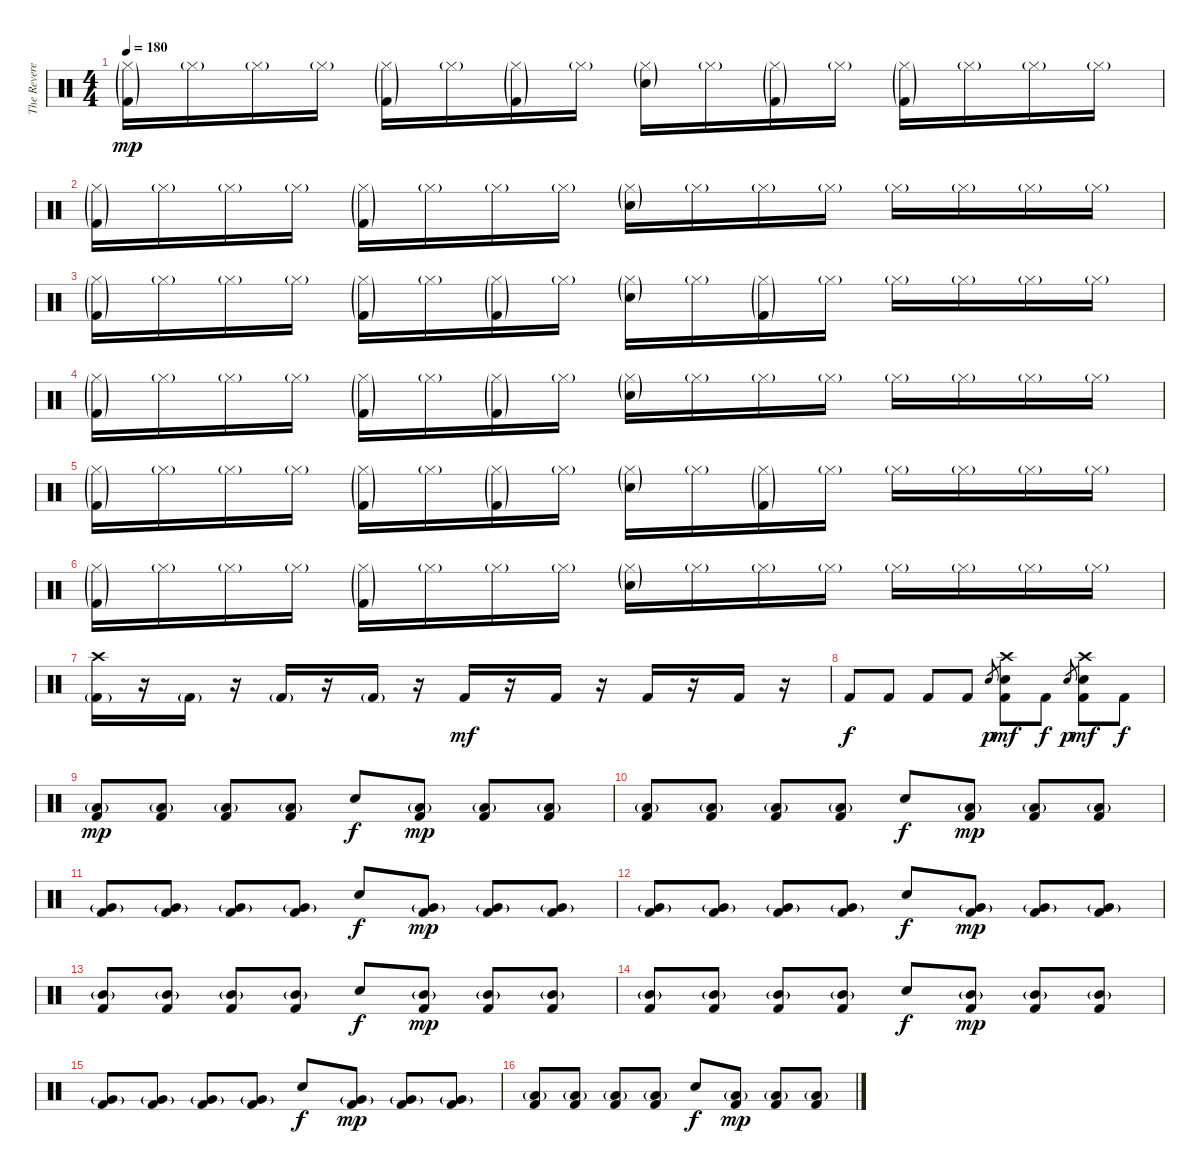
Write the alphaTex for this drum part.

\track ("The Reverend" "The Revere") {instrument percussion}
\staff {score}
\articulation defaults
\ts (4 4)
\tempo 180
\clef neutral
\ks c
("Hi-Hat (closed)"{g} "Kick (hit) 2"{g}).16{dy mp} "Hi-Hat (closed)"{g}.16 "Hi-Hat (closed)"{g}.16 "Hi-Hat (closed)"{g}.16 ("Hi-Hat (closed)"{g} "Kick (hit) 2"{g}).16 "Hi-Hat (closed)"{g}.16 ("Hi-Hat (closed)"{g} "Kick (hit) 2"{g}).16 "Hi-Hat (closed)"{g}.16 ("Hi-Hat (closed)"{g} "Snare (hit) 2"{g}).16 "Hi-Hat (closed)"{g}.16 ("Hi-Hat (closed)"{g} "Kick (hit) 2"{g}).16 "Hi-Hat (closed)"{g}.16 ("Hi-Hat (closed)"{g} "Kick (hit) 2"{g}).16 "Hi-Hat (closed)"{g}.16 "Hi-Hat (closed)"{g}.16 "Hi-Hat (closed)"{g}.16 |
("Hi-Hat (closed)"{g} "Kick (hit) 2"{g}).16 "Hi-Hat (closed)"{g}.16 "Hi-Hat (closed)"{g}.16 "Hi-Hat (closed)"{g}.16 ("Hi-Hat (closed)"{g} "Kick (hit) 2"{g}).16 "Hi-Hat (closed)"{g}.16 "Hi-Hat (closed)"{g}.16 "Hi-Hat (closed)"{g}.16 ("Hi-Hat (closed)"{g} "Snare (hit) 2"{g}).16 "Hi-Hat (closed)"{g}.16 "Hi-Hat (closed)"{g}.16 "Hi-Hat (closed)"{g}.16 "Hi-Hat (closed)"{g}.16 "Hi-Hat (closed)"{g}.16 "Hi-Hat (closed)"{g}.16 "Hi-Hat (closed)"{g}.16 |
("Hi-Hat (closed)"{g} "Kick (hit) 2"{g}).16 "Hi-Hat (closed)"{g}.16 "Hi-Hat (closed)"{g}.16 "Hi-Hat (closed)"{g}.16 ("Hi-Hat (closed)"{g} "Kick (hit) 2"{g}).16 "Hi-Hat (closed)"{g}.16 ("Hi-Hat (closed)"{g} "Kick (hit) 2"{g}).16 "Hi-Hat (closed)"{g}.16 ("Hi-Hat (closed)"{g} "Snare (hit) 2"{g}).16 "Hi-Hat (closed)"{g}.16 ("Hi-Hat (closed)"{g} "Kick (hit) 2"{g}).16 "Hi-Hat (closed)"{g}.16 "Hi-Hat (closed)"{g}.16 "Hi-Hat (closed)"{g}.16 "Hi-Hat (closed)"{g}.16 "Hi-Hat (closed)"{g}.16 |
("Hi-Hat (closed)"{g} "Kick (hit) 2"{g}).16 "Hi-Hat (closed)"{g}.16 "Hi-Hat (closed)"{g}.16 "Hi-Hat (closed)"{g}.16 ("Hi-Hat (closed)"{g} "Kick (hit) 2"{g}).16 "Hi-Hat (closed)"{g}.16 ("Hi-Hat (closed)"{g} "Kick (hit) 2"{g}).16 "Hi-Hat (closed)"{g}.16 ("Hi-Hat (closed)"{g} "Snare (hit) 2"{g}).16 "Hi-Hat (closed)"{g}.16 "Hi-Hat (closed)"{g}.16 "Hi-Hat (closed)"{g}.16 "Hi-Hat (closed)"{g}.16 "Hi-Hat (closed)"{g}.16 "Hi-Hat (closed)"{g}.16 "Hi-Hat (closed)"{g}.16 |
("Hi-Hat (closed)"{g} "Kick (hit) 2"{g}).16 "Hi-Hat (closed)"{g}.16 "Hi-Hat (closed)"{g}.16 "Hi-Hat (closed)"{g}.16 ("Hi-Hat (closed)"{g} "Kick (hit) 2"{g}).16 "Hi-Hat (closed)"{g}.16 ("Hi-Hat (closed)"{g} "Kick (hit) 2"{g}).16 "Hi-Hat (closed)"{g}.16 ("Hi-Hat (closed)"{g} "Snare (hit) 2"{g}).16 "Hi-Hat (closed)"{g}.16 ("Hi-Hat (closed)"{g} "Kick (hit) 2"{g}).16 "Hi-Hat (closed)"{g}.16 "Hi-Hat (closed)"{g}.16 "Hi-Hat (closed)"{g}.16 "Hi-Hat (closed)"{g}.16 "Hi-Hat (closed)"{g}.16 |
("Hi-Hat (closed)"{g} "Kick (hit) 2"{g}).16 "Hi-Hat (closed)"{g}.16 "Hi-Hat (closed)"{g}.16 "Hi-Hat (closed)"{g}.16 ("Hi-Hat (closed)"{g} "Kick (hit) 2"{g}).16 "Hi-Hat (closed)"{g}.16 "Hi-Hat (closed)"{g}.16 "Hi-Hat (closed)"{g}.16 ("Hi-Hat (closed)"{g} "Snare (hit) 2"{g}).16 "Hi-Hat (closed)"{g}.16 "Hi-Hat (closed)"{g}.16 "Hi-Hat (closed)"{g}.16 "Hi-Hat (closed)"{g}.16 "Hi-Hat (closed)"{g}.16 "Hi-Hat (closed)"{g}.16 "Hi-Hat (closed)"{g}.16 |
("Crash high (hit)" "Kick (hit) 2"{g}).16 r.16 "Kick (hit) 2"{g}.16 r.16 "Kick (hit) 2"{g}.16 r.16 "Kick (hit) 2"{g}.16 r.16 "Kick (hit) 2".16{dy mf} r.16 "Kick (hit) 2".16 r.16 "Kick (hit) 2".16 r.16 "Kick (hit) 2".16 r.16 |
"Kick (hit) 2".8{dy f} "Kick (hit) 2".8 "Kick (hit) 2".8 "Kick (hit) 2".8 "Snare (hit) 2".8{gr dy p} ("Crash high (hit)" "Snare (hit) 2" "Kick (hit) 2").8{dy mf} "Kick (hit) 2".8{dy f} "Snare (hit) 2".8{gr dy p} ("Crash high (hit)" "Snare (hit) 2" "Kick (hit) 2").8{dy mf} "Kick (hit) 2".8{dy f} |
("Low Floor Tom (hit)"{g} "Kick (hit) 2").8{dy mp} ("Low Floor Tom (hit)"{g} "Kick (hit) 2").8 ("Low Floor Tom (hit)"{g} "Kick (hit) 2").8 ("Low Floor Tom (hit)"{g} "Kick (hit) 2").8 "Snare (hit) 2".8{dy f} ("Low Floor Tom (hit)"{g} "Kick (hit) 2").8{dy mp} ("Low Floor Tom (hit)"{g} "Kick (hit) 2").8 ("Low Floor Tom (hit)"{g} "Kick (hit) 2").8 |
("Low Floor Tom (hit)"{g} "Kick (hit) 2").8 ("Low Floor Tom (hit)"{g} "Kick (hit) 2").8 ("Low Floor Tom (hit)"{g} "Kick (hit) 2").8 ("Low Floor Tom (hit)"{g} "Kick (hit) 2").8 "Snare (hit) 2".8{dy f} ("Low Floor Tom (hit)"{g} "Kick (hit) 2").8{dy mp} ("Low Floor Tom (hit)"{g} "Kick (hit) 2").8 ("Low Floor Tom (hit)"{g} "Kick (hit) 2").8 |
("Very Low Tom (hit)"{g} "Kick (hit) 2").8 ("Very Low Tom (hit)"{g} "Kick (hit) 2").8 ("Very Low Tom (hit)"{g} "Kick (hit) 2").8 ("Very Low Tom (hit)"{g} "Kick (hit) 2").8 "Snare (hit) 2".8{dy f} ("Very Low Tom (hit)"{g} "Kick (hit) 2").8{dy mp} ("Very Low Tom (hit)"{g} "Kick (hit) 2").8 ("Very Low Tom (hit)"{g} "Kick (hit) 2").8 |
("Very Low Tom (hit)"{g} "Kick (hit) 2").8 ("Very Low Tom (hit)"{g} "Kick (hit) 2").8 ("Very Low Tom (hit)"{g} "Kick (hit) 2").8 ("Very Low Tom (hit)"{g} "Kick (hit) 2").8 "Snare (hit) 2".8{dy f} ("Very Low Tom (hit)"{g} "Kick (hit) 2").8{dy mp} ("Very Low Tom (hit)"{g} "Kick (hit) 2").8 ("Very Low Tom (hit)"{g} "Kick (hit) 2").8 |
("Mid Tom (hit)"{g} "Kick (hit) 2").8 ("Mid Tom (hit)"{g} "Kick (hit) 2").8 ("Mid Tom (hit)"{g} "Kick (hit) 2").8 ("Mid Tom (hit)"{g} "Kick (hit) 2").8 "Snare (hit) 2".8{dy f} ("Mid Tom (hit)"{g} "Kick (hit) 2").8{dy mp} ("Mid Tom (hit)"{g} "Kick (hit) 2").8 ("Mid Tom (hit)"{g} "Kick (hit) 2").8 |
("Mid Tom (hit)"{g} "Kick (hit) 2").8 ("Mid Tom (hit)"{g} "Kick (hit) 2").8 ("Mid Tom (hit)"{g} "Kick (hit) 2").8 ("Mid Tom (hit)"{g} "Kick (hit) 2").8 "Snare (hit) 2".8{dy f} ("Mid Tom (hit)"{g} "Kick (hit) 2").8{dy mp} ("Mid Tom (hit)"{g} "Kick (hit) 2").8 ("Mid Tom (hit)"{g} "Kick (hit) 2").8 |
("Very Low Tom (hit)"{g} "Kick (hit) 2").8 ("Very Low Tom (hit)"{g} "Kick (hit) 2").8 ("Very Low Tom (hit)"{g} "Kick (hit) 2").8 ("Very Low Tom (hit)"{g} "Kick (hit) 2").8 "Snare (hit) 2".8{dy f} ("Very Low Tom (hit)"{g} "Kick (hit) 2").8{dy mp} ("Very Low Tom (hit)"{g} "Kick (hit) 2").8 ("Very Low Tom (hit)"{g} "Kick (hit) 2").8 |
("Low Tom (hit)"{g} "Kick (hit) 2").8 ("Low Tom (hit)"{g} "Kick (hit) 2").8 ("Low Tom (hit)"{g} "Kick (hit) 2").8 ("Low Tom (hit)"{g} "Kick (hit) 2").8 "Snare (hit) 2".8{dy f} ("Low Tom (hit)"{g} "Kick (hit) 2").8{dy mp} ("Low Tom (hit)"{g} "Kick (hit) 2").8 ("Low Tom (hit)"{g} "Kick (hit) 2").8
